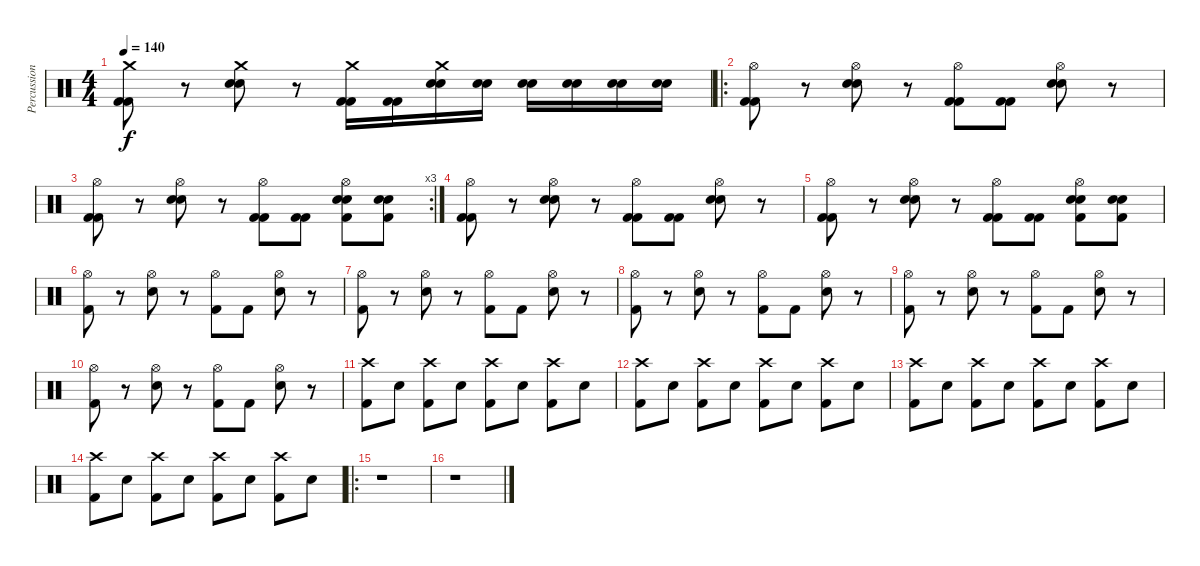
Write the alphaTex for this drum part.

\track ("Percussions" "Percussion") {instrument percussion}
\staff {score}
\articulation defaults
\ts (4 4)
\tempo 140
\clef neutral
\ks c
("Crash medium (hit)" "Kick (hit) 2" "Kick (hit) 2").8{dy f} r.8 ("Crash medium (hit)" "Snare (hit) 2" "Snare (hit) 2").8 r.8 ("Crash medium (hit)" "Kick (hit) 2" "Kick (hit) 2").16 ("Kick (hit) 2" "Kick (hit) 2").16 ("Crash medium (hit)" "Snare (hit) 2" "Snare (hit) 2").16 ("Snare (hit) 2" "Snare (hit) 2").16 ("Snare (hit) 2" "Snare (hit) 2").16 ("Snare (hit) 2" "Snare (hit) 2").16 ("Snare (hit) 2" "Snare (hit) 2").16 ("Snare (hit) 2" "Snare (hit) 2").16 |
\ro
("Hi-Hat (open)" "Kick (hit) 2" "Kick (hit) 2").8 r.8 ("Hi-Hat (open)" "Snare (hit) 2" "Snare (hit) 2").8 r.8 ("Hi-Hat (open)" "Kick (hit) 2" "Kick (hit) 2").8 ("Kick (hit) 2" "Kick (hit) 2").8 ("Hi-Hat (open)" "Snare (hit) 2" "Snare (hit) 2").8 r.8 |
\rc 3
("Hi-Hat (open)" "Kick (hit) 2" "Kick (hit) 2").8 r.8 ("Hi-Hat (open)" "Snare (hit) 2" "Snare (hit) 2").8 r.8 ("Hi-Hat (open)" "Kick (hit) 2" "Kick (hit) 2").8 ("Kick (hit) 2" "Kick (hit) 2").8 ("Hi-Hat (open)" "Snare (hit) 2" "Snare (hit) 2" "Kick (hit) 2").8 ("Snare (hit) 2" "Snare (hit) 2" "Kick (hit) 2").8 |
("Hi-Hat (open)" "Kick (hit) 2" "Kick (hit) 2").8 r.8 ("Hi-Hat (open)" "Snare (hit) 2" "Snare (hit) 2").8 r.8 ("Hi-Hat (open)" "Kick (hit) 2" "Kick (hit) 2").8 ("Kick (hit) 2" "Kick (hit) 2").8 ("Hi-Hat (open)" "Snare (hit) 2" "Snare (hit) 2").8 r.8 |
("Hi-Hat (open)" "Kick (hit) 2" "Kick (hit) 2").8 r.8 ("Hi-Hat (open)" "Snare (hit) 2" "Snare (hit) 2").8 r.8 ("Hi-Hat (open)" "Kick (hit) 2" "Kick (hit) 2").8 ("Kick (hit) 2" "Kick (hit) 2").8 ("Hi-Hat (open)" "Snare (hit) 2" "Snare (hit) 2" "Kick (hit) 2").8 ("Snare (hit) 2" "Snare (hit) 2" "Kick (hit) 2").8 |
("Hi-Hat (open)" "Kick (hit) 2").8 r.8 ("Hi-Hat (open)" "Snare (hit) 2").8 r.8 ("Hi-Hat (open)" "Kick (hit) 2").8 "Kick (hit) 2".8 ("Hi-Hat (open)" "Snare (hit) 2").8 r.8 |
("Hi-Hat (open)" "Kick (hit) 2").8 r.8 ("Hi-Hat (open)" "Snare (hit) 2").8 r.8 ("Hi-Hat (open)" "Kick (hit) 2").8 "Kick (hit) 2".8 ("Hi-Hat (open)" "Snare (hit) 2").8 r.8 |
("Hi-Hat (open)" "Kick (hit) 2").8 r.8 ("Hi-Hat (open)" "Snare (hit) 2").8 r.8 ("Hi-Hat (open)" "Kick (hit) 2").8 "Kick (hit) 2".8 ("Hi-Hat (open)" "Snare (hit) 2").8 r.8 |
("Hi-Hat (open)" "Kick (hit) 2").8 r.8 ("Hi-Hat (open)" "Snare (hit) 2").8 r.8 ("Hi-Hat (open)" "Kick (hit) 2").8 "Kick (hit) 2".8 ("Hi-Hat (open)" "Snare (hit) 2").8 r.8 |
("Hi-Hat (open)" "Kick (hit) 2").8 r.8 ("Hi-Hat (open)" "Snare (hit) 2").8 r.8 ("Hi-Hat (open)" "Kick (hit) 2").8 "Kick (hit) 2".8 ("Hi-Hat (open)" "Snare (hit) 2").8 r.8 |
("Crash high (hit)" "Kick (hit) 2").8 "Snare (hit) 2".8 ("Crash high (hit)" "Kick (hit) 2").8 "Snare (hit) 2".8 ("Crash high (hit)" "Kick (hit) 2").8 "Snare (hit) 2".8 ("Crash high (hit)" "Kick (hit) 2").8 "Snare (hit) 2".8 |
("Crash high (hit)" "Kick (hit) 2").8 "Snare (hit) 2".8 ("Crash high (hit)" "Kick (hit) 2").8 "Snare (hit) 2".8 ("Crash high (hit)" "Kick (hit) 2").8 "Snare (hit) 2".8 ("Crash high (hit)" "Kick (hit) 2").8 "Snare (hit) 2".8 |
("Crash high (hit)" "Kick (hit) 2").8 "Snare (hit) 2".8 ("Crash high (hit)" "Kick (hit) 2").8 "Snare (hit) 2".8 ("Crash high (hit)" "Kick (hit) 2").8 "Snare (hit) 2".8 ("Crash high (hit)" "Kick (hit) 2").8 "Snare (hit) 2".8 |
("Crash high (hit)" "Kick (hit) 2").8 "Snare (hit) 2".8 ("Crash high (hit)" "Kick (hit) 2").8 "Snare (hit) 2".8 ("Crash high (hit)" "Kick (hit) 2").8 "Snare (hit) 2".8 ("Crash high (hit)" "Kick (hit) 2").8 "Snare (hit) 2".8 |
\ro
r.1 |
r.1
